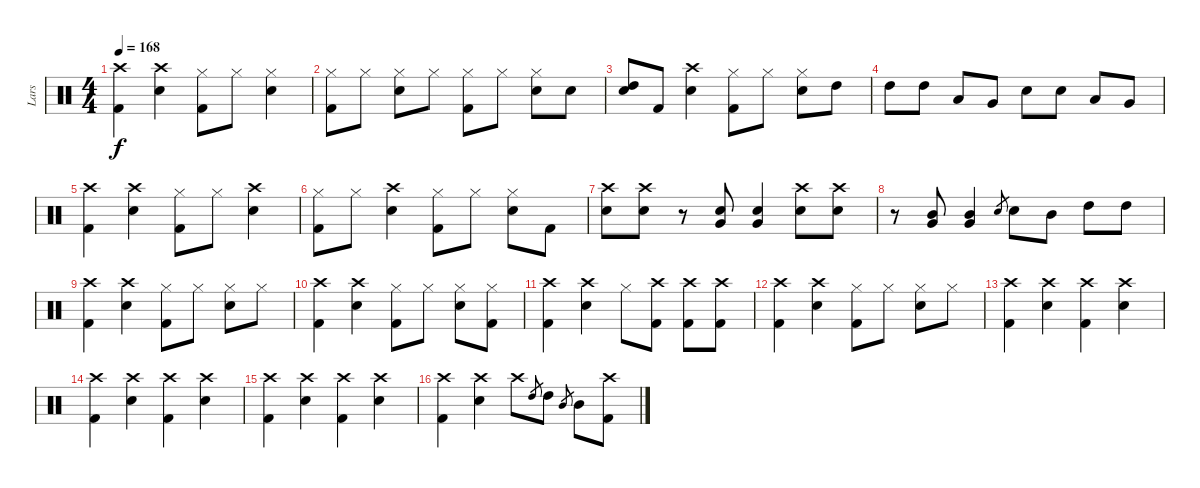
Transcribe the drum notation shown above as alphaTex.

\track ("Lars" "Lars") {instrument percussion}
\staff {score}
\articulation defaults
\ts (4 4)
\tempo 168
\clef neutral
\ks c
("Crash high (hit)" "Kick (hit) 2").4{dy f} ("Crash high (hit)" "Snare (hit) 2").4 ("Hi-Hat (closed)" "Kick (hit) 2").8 "Hi-Hat (closed)".8 ("Hi-Hat (closed)" "Snare (hit) 2").4 |
("Hi-Hat (closed)" "Kick (hit) 2").8 "Hi-Hat (closed)".8 ("Hi-Hat (closed)" "Snare (hit) 2").8 "Hi-Hat (closed)".8 ("Hi-Hat (closed)" "Kick (hit) 2").8 "Hi-Hat (closed)".8 ("Hi-Hat (closed)" "Snare (hit) 2").8 "Snare (hit) 2".8 |
("High Tom (hit)" "Snare (hit) 2").8 "Kick (hit) 2".8 ("Crash high (hit)" "Snare (hit) 2").4 ("Hi-Hat (closed)" "Kick (hit) 2").8 "Hi-Hat (closed)".8 ("Hi-Hat (closed)" "Snare (hit) 2").8 "High Tom (hit)".8 |
"High Tom (hit)".8 "High Tom (hit)".8 "Low Floor Tom (hit)".8 "Very Low Tom (hit)".8 "Snare (hit) 2".8 "Snare (hit) 2".8 "Low Floor Tom (hit)".8 "Very Low Tom (hit)".8 |
("Crash high (hit)" "Kick (hit) 2").4 ("Crash high (hit)" "Snare (hit) 2").4 ("Hi-Hat (closed)" "Kick (hit) 2").8 "Hi-Hat (closed)".8 ("Crash high (hit)" "Snare (hit) 2").4 |
("Hi-Hat (closed)" "Kick (hit) 2").8 "Hi-Hat (closed)".8 ("Crash high (hit)" "Snare (hit) 2").4 ("Hi-Hat (closed)" "Kick (hit) 2").8 "Hi-Hat (closed)".8 ("Hi-Hat (closed)" "Snare (hit) 2").8 "Kick (hit) 2".8 |
("Crash high (hit)" "Snare (hit) 2").8 ("Crash high (hit)" "Snare (hit) 2").8 r.8 ("Snare (hit) 2" "Very Low Tom (hit)").8 ("Snare (hit) 2" "Very Low Tom (hit)").4 ("Crash high (hit)" "Snare (hit) 2").8 ("Crash high (hit)" "Snare (hit) 2").8 |
r.8 ("Mid Tom (hit)" "Very Low Tom (hit)").8 ("Mid Tom (hit)" "Very Low Tom (hit)").4 "Snare (hit) 2".8{gr} "Snare (hit) 2".8 "Mid Tom (hit)".8 "High Tom (hit)".8 "High Tom (hit)".8 |
("Crash high (hit)" "Kick (hit) 2").4 ("Crash high (hit)" "Snare (hit) 2").4 ("Hi-Hat (closed)" "Kick (hit) 2").8 "Hi-Hat (closed)".8 ("Hi-Hat (closed)" "Snare (hit) 2").8 "Hi-Hat (closed)".8 |
("Crash high (hit)" "Kick (hit) 2").4 ("Crash high (hit)" "Snare (hit) 2").4 ("Hi-Hat (closed)" "Kick (hit) 2").8 "Hi-Hat (closed)".8 ("Hi-Hat (closed)" "Snare (hit) 2").8 ("Hi-Hat (closed)" "Kick (hit) 2").8 |
("Crash high (hit)" "Kick (hit) 2").4 ("Crash high (hit)" "Snare (hit) 2").4 "Hi-Hat (closed)".8 ("Crash high (hit)" "Kick (hit) 2").8 ("Crash high (hit)" "Kick (hit) 2").8 ("Crash high (hit)" "Kick (hit) 2").8 |
("Crash high (hit)" "Kick (hit) 2").4 ("Crash high (hit)" "Snare (hit) 2").4 ("Hi-Hat (closed)" "Kick (hit) 2").8 "Hi-Hat (closed)".8 ("Hi-Hat (closed)" "Snare (hit) 2").8 "Hi-Hat (closed)".8 |
("Crash high (hit)" "Kick (hit) 2").4 ("Crash high (hit)" "Snare (hit) 2").4 ("Crash high (hit)" "Kick (hit) 2").4 ("Crash high (hit)" "Snare (hit) 2").4 |
("Crash high (hit)" "Kick (hit) 2").4 ("Crash high (hit)" "Snare (hit) 2").4 ("Crash high (hit)" "Kick (hit) 2").4 ("Crash high (hit)" "Snare (hit) 2").4 |
("Crash high (hit)" "Kick (hit) 2").4 ("Crash high (hit)" "Snare (hit) 2").4 ("Crash high (hit)" "Kick (hit) 2").4 ("Crash high (hit)" "Snare (hit) 2").4 |
("Crash high (hit)" "Kick (hit) 2").4 ("Crash high (hit)" "Snare (hit) 2").4 "Crash high (hit)".8 "High Tom (hit)".8{gr} "High Tom (hit)".8 "Mid Tom (hit)".8{gr} "Mid Tom (hit)".8 ("Crash high (hit)" "Kick (hit) 2").8
